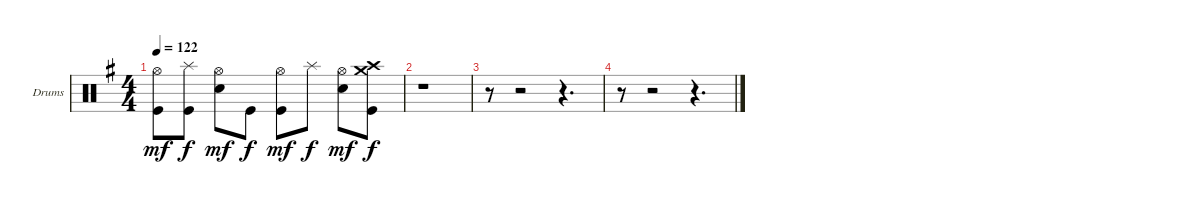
\bracketExtendMode groupsimilarinstruments
\firstSystemTrackNameOrientation horizontal
\otherSystemsTrackNameOrientation horizontal
\track ("Drumkit" "Drums") {instrument percussion}
\staff {score}
\articulation defaults
\ts (4 4)
\tempo 122
\clef neutral
\ks g
("Hi-Hat (open)" "Kick (hit)").8{dy mf} ("Splash (hit)" "Kick (hit)").8{dy f} ("Hi-Hat (open)" "Snare (hit) 2").8{dy mf} "Kick (hit)".8{dy f} ("Hi-Hat (open)" "Kick (hit)").8{dy mf} "Splash (hit)".8{dy f} ("Hi-Hat (open)" "Snare (hit) 2").8{dy mf} ("Crash medium (hit)" "Crash high (hit)" "Kick (hit)").8{dy f} |
r.1 |
r.8 r.2 r.4{d} |
r.8 r.2 r.4{d}
